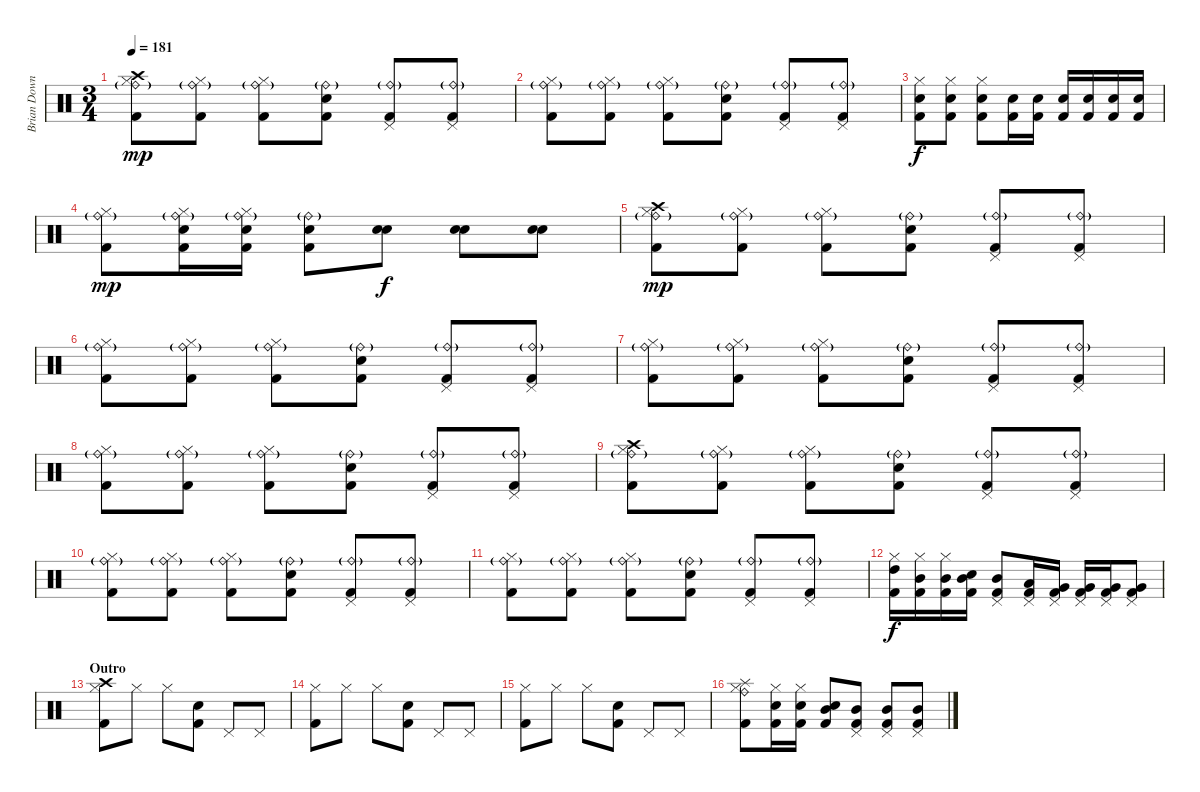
\track ("Brian Downey" "Brian Down") {instrument percussion}
\staff {score}
\articulation defaults
\ts (3 4)
\tempo 181
\clef neutral
\ks c
("Crash high (hit)" "Ride (bell)"{g} "Hi-Hat (closed)" "Kick (hit) 2").8{dy mp} ("Ride (bell)"{g} "Hi-Hat (closed)" "Kick (hit) 2").8 ("Ride (bell)"{g} "Hi-Hat (closed)" "Kick (hit) 2").8 ("Ride (bell)"{g} "Snare (hit) 2" "Kick (hit) 2").8 ("Ride (bell)"{g} "Pedal Hi-Hat (hit)" "Kick (hit) 2").8 ("Ride (bell)"{g} "Pedal Hi-Hat (hit)" "Kick (hit) 2").8 |
("Ride (bell)"{g} "Hi-Hat (closed)" "Kick (hit) 2").8 ("Ride (bell)"{g} "Hi-Hat (closed)" "Kick (hit) 2").8 ("Ride (bell)"{g} "Hi-Hat (closed)" "Kick (hit) 2").8 ("Ride (bell)"{g} "Snare (hit) 2" "Kick (hit) 2").8 ("Ride (bell)"{g} "Pedal Hi-Hat (hit)" "Kick (hit) 2").8 ("Ride (bell)"{g} "Pedal Hi-Hat (hit)" "Kick (hit) 2").8 |
("Electric Snare (hit)" "Hi-Hat (closed)" "Kick (hit) 2").8{dy f} ("Electric Snare (hit)" "Hi-Hat (closed)" "Kick (hit) 2").8 ("Electric Snare (hit)" "Hi-Hat (closed)" "Kick (hit) 2").8 ("Electric Snare (hit)" "Kick (hit) 2").16 ("Electric Snare (hit)" "Kick (hit) 2").16 ("Electric Snare (hit)" "Kick (hit) 2").16 ("Electric Snare (hit)" "Kick (hit) 2").16 ("Electric Snare (hit)" "Kick (hit) 2").16 ("Electric Snare (hit)" "Kick (hit) 2").16 |
("Ride (bell)"{g} "Hi-Hat (closed)" "Kick (hit) 2").8{dy mp} ("Ride (bell)"{g} "Hi-Hat (closed)" "Kick (hit) 2" "Snare (hit) 2").16 ("Ride (bell)"{g} "Hi-Hat (closed)" "Kick (hit) 2" "Snare (hit) 2").16 ("Ride (bell)"{g} "Snare (hit) 2" "Kick (hit) 2").8 ("Electric Snare (hit)" "Electric Snare (hit)").8{dy f} ("Electric Snare (hit)" "Electric Snare (hit)").8 ("Electric Snare (hit)" "Electric Snare (hit)").8 |
("Crash high (hit)" "Ride (bell)"{g} "Hi-Hat (closed)" "Kick (hit) 2").8{dy mp} ("Ride (bell)"{g} "Hi-Hat (closed)" "Kick (hit) 2").8 ("Ride (bell)"{g} "Hi-Hat (closed)" "Kick (hit) 2").8 ("Ride (bell)"{g} "Snare (hit) 2" "Kick (hit) 2").8 ("Ride (bell)"{g} "Pedal Hi-Hat (hit)" "Kick (hit) 2").8 ("Ride (bell)"{g} "Pedal Hi-Hat (hit)" "Kick (hit) 2").8 |
("Ride (bell)"{g} "Hi-Hat (closed)" "Kick (hit) 2").8 ("Ride (bell)"{g} "Hi-Hat (closed)" "Kick (hit) 2").8 ("Ride (bell)"{g} "Hi-Hat (closed)" "Kick (hit) 2").8 ("Ride (bell)"{g} "Snare (hit) 2" "Kick (hit) 2").8 ("Ride (bell)"{g} "Pedal Hi-Hat (hit)" "Kick (hit) 2").8 ("Ride (bell)"{g} "Pedal Hi-Hat (hit)" "Kick (hit) 2").8 |
("Ride (bell)"{g} "Hi-Hat (closed)" "Kick (hit) 2").8 ("Ride (bell)"{g} "Hi-Hat (closed)" "Kick (hit) 2").8 ("Ride (bell)"{g} "Hi-Hat (closed)" "Kick (hit) 2").8 ("Ride (bell)"{g} "Snare (hit) 2" "Kick (hit) 2").8 ("Ride (bell)"{g} "Pedal Hi-Hat (hit)" "Kick (hit) 2").8 ("Ride (bell)"{g} "Pedal Hi-Hat (hit)" "Kick (hit) 2").8 |
("Ride (bell)"{g} "Hi-Hat (closed)" "Kick (hit) 2").8 ("Ride (bell)"{g} "Hi-Hat (closed)" "Kick (hit) 2").8 ("Ride (bell)"{g} "Hi-Hat (closed)" "Kick (hit) 2").8 ("Ride (bell)"{g} "Snare (hit) 2" "Kick (hit) 2").8 ("Ride (bell)"{g} "Pedal Hi-Hat (hit)" "Kick (hit) 2").8 ("Ride (bell)"{g} "Pedal Hi-Hat (hit)" "Kick (hit) 2").8 |
("Crash high (hit)" "Ride (bell)"{g} "Hi-Hat (closed)" "Kick (hit) 2").8 ("Ride (bell)"{g} "Hi-Hat (closed)" "Kick (hit) 2").8 ("Ride (bell)"{g} "Hi-Hat (closed)" "Kick (hit) 2").8 ("Ride (bell)"{g} "Snare (hit) 2" "Kick (hit) 2").8 ("Ride (bell)"{g} "Pedal Hi-Hat (hit)" "Kick (hit) 2").8 ("Ride (bell)"{g} "Pedal Hi-Hat (hit)" "Kick (hit) 2").8 |
("Ride (bell)"{g} "Hi-Hat (closed)" "Kick (hit) 2").8 ("Ride (bell)"{g} "Hi-Hat (closed)" "Kick (hit) 2").8 ("Ride (bell)"{g} "Hi-Hat (closed)" "Kick (hit) 2").8 ("Ride (bell)"{g} "Snare (hit) 2" "Kick (hit) 2").8 ("Ride (bell)"{g} "Pedal Hi-Hat (hit)" "Kick (hit) 2").8 ("Ride (bell)"{g} "Pedal Hi-Hat (hit)" "Kick (hit) 2").8 |
("Ride (bell)"{g} "Hi-Hat (closed)" "Kick (hit) 2").8 ("Ride (bell)"{g} "Hi-Hat (closed)" "Kick (hit) 2").8 ("Ride (bell)"{g} "Hi-Hat (closed)" "Kick (hit) 2").8 ("Ride (bell)"{g} "Snare (hit) 2" "Kick (hit) 2").8 ("Ride (bell)"{g} "Pedal Hi-Hat (hit)" "Kick (hit) 2").8 ("Ride (bell)"{g} "Pedal Hi-Hat (hit)" "Kick (hit) 2").8 |
("High Tom (hit)" "Hi-Hat (closed)" "Kick (hit) 2").16{dy f} ("Mid Tom (hit)" "Hi-Hat (closed)" "Kick (hit) 2").16 ("Mid Tom (hit)" "Hi-Hat (closed)" "Kick (hit) 2").16 ("Mid Tom (hit)" "Snare (hit) 2" "Kick (hit) 2").16 ("Mid Tom (hit)" "Pedal Hi-Hat (hit)" "Kick (hit) 2").8 ("Low Tom (hit)" "Pedal Hi-Hat (hit)" "Kick (hit) 2").16 ("Very Low Tom (hit)" "Pedal Hi-Hat (hit)" "Kick (hit) 2").16 ("Very Low Tom (hit)" "Pedal Hi-Hat (hit)" "Kick (hit) 2").16 ("Very Low Tom (hit)" "Pedal Hi-Hat (hit)" "Kick (hit) 2").16 ("Very Low Tom (hit)" "Pedal Hi-Hat (hit)" "Kick (hit) 2").8 |
\section ("" "Outro")
("Crash high (hit)" "Hi-Hat (closed)" "Kick (hit) 2").8 "Hi-Hat (closed)".8 "Hi-Hat (closed)".8 ("Snare (hit) 2" "Kick (hit) 2").8 "Pedal Hi-Hat (hit)".8 "Pedal Hi-Hat (hit)".8 |
("Hi-Hat (closed)" "Kick (hit) 2").8 "Hi-Hat (closed)".8 "Hi-Hat (closed)".8 ("Snare (hit) 2" "Kick (hit) 2").8 "Pedal Hi-Hat (hit)".8 "Pedal Hi-Hat (hit)".8 |
("Hi-Hat (closed)" "Kick (hit) 2").8 "Hi-Hat (closed)".8 "Hi-Hat (closed)".8 ("Snare (hit) 2" "Kick (hit) 2").8 "Pedal Hi-Hat (hit)".8 "Pedal Hi-Hat (hit)".8 |
("Ride (bell)" "Splash (hit)" "Hi-Hat (closed)" "Kick (hit) 2").8 ("Electric Snare (hit)" "Hi-Hat (closed)" "Kick (hit) 2").16 ("Electric Snare (hit)" "Hi-Hat (closed)" "Kick (hit) 2").16 ("Mid Tom (hit)" "Snare (hit) 2" "Kick (hit) 2").8 ("Mid Tom (hit)" "Pedal Hi-Hat (hit)" "Kick (hit) 2").8 ("Mid Tom (hit)" "Pedal Hi-Hat (hit)" "Kick (hit) 2").8 ("Mid Tom (hit)" "Pedal Hi-Hat (hit)" "Kick (hit) 2").8
